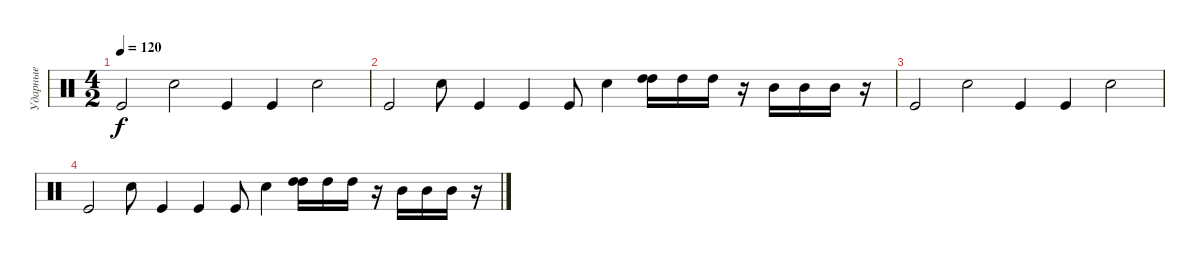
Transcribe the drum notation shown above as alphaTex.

\track ("Ударные" "Ударные") {instrument percussion}
\staff {score}
\articulation defaults
\ts (4 2)
\tempo 120
\clef neutral
\ks c "Kick (hit)".2{dy f} "Snare (hit) 2".2 "Kick (hit)".4 "Kick (hit)".4 "Snare (hit) 2".2
|
"Kick (hit)".2 "Snare (hit) 2".8 "Kick (hit)".4 "Kick (hit)".4 "Kick (hit)".8 "Snare (hit) 2".4 ("High Tom (hit)" "High Tom (hit)").16 "High Tom (hit)".16 "High Tom (hit)".16 r.16 "Mid Tom (hit)".16 "Mid Tom (hit)".16 "Mid Tom (hit)".16 r.16 |
"Kick (hit)".2 "Snare (hit) 2".2 "Kick (hit)".4 "Kick (hit)".4 "Snare (hit) 2".2 |
"Kick (hit)".2 "Snare (hit) 2".8 "Kick (hit)".4 "Kick (hit)".4 "Kick (hit)".8 "Snare (hit) 2".4 ("High Tom (hit)" "High Tom (hit)").16 "High Tom (hit)".16 "High Tom (hit)".16 r.16 "Mid Tom (hit)".16 "Mid Tom (hit)".16 "Mid Tom (hit)".16 r.16
